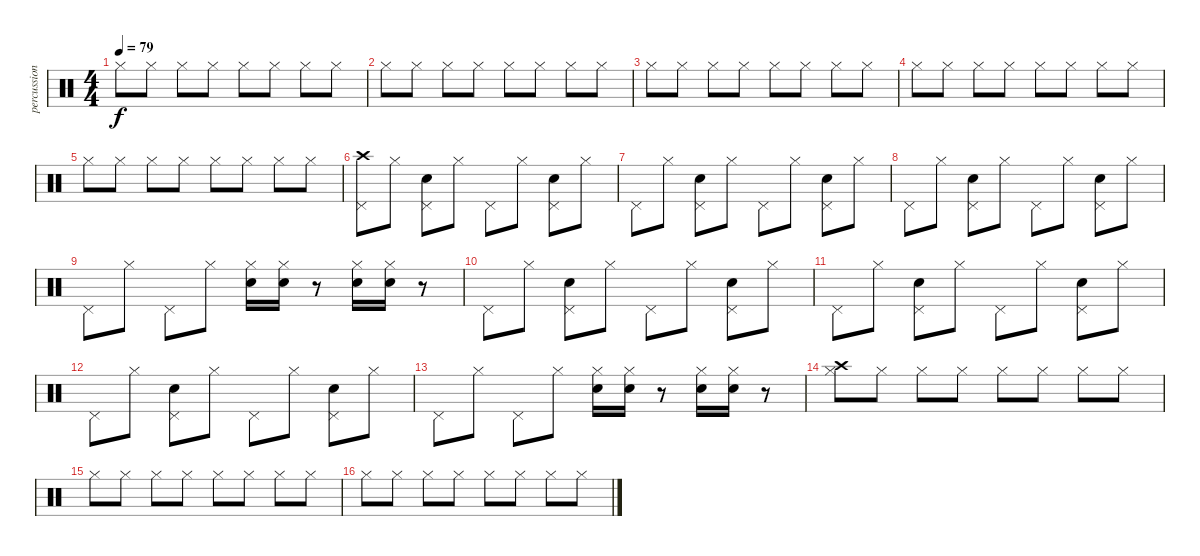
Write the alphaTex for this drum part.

\track ("percussion" "percussion") {instrument percussion}
\staff {score}
\articulation defaults
\ts (4 4)
\tempo 79
\clef neutral
\ks c "Hi-Hat (closed)".8{dy f} "Hi-Hat (closed)".8 "Hi-Hat (closed)".8 "Hi-Hat (closed)".8 "Hi-Hat (closed)".8 "Hi-Hat (closed)".8 "Hi-Hat (closed)".8 "Hi-Hat (closed)".8
|
"Hi-Hat (closed)".8 "Hi-Hat (closed)".8 "Hi-Hat (closed)".8 "Hi-Hat (closed)".8 "Hi-Hat (closed)".8 "Hi-Hat (closed)".8 "Hi-Hat (closed)".8 "Hi-Hat (closed)".8 |
"Hi-Hat (closed)".8 "Hi-Hat (closed)".8 "Hi-Hat (closed)".8 "Hi-Hat (closed)".8 "Hi-Hat (closed)".8 "Hi-Hat (closed)".8 "Hi-Hat (closed)".8 "Hi-Hat (closed)".8 |
"Hi-Hat (closed)".8 "Hi-Hat (closed)".8 "Hi-Hat (closed)".8 "Hi-Hat (closed)".8 "Hi-Hat (closed)".8 "Hi-Hat (closed)".8 "Hi-Hat (closed)".8 "Hi-Hat (closed)".8 |
"Hi-Hat (closed)".8 "Hi-Hat (closed)".8 "Hi-Hat (closed)".8 "Hi-Hat (closed)".8 "Hi-Hat (closed)".8 "Hi-Hat (closed)".8 "Hi-Hat (closed)".8 "Hi-Hat (closed)".8 |
("Crash high (hit)" "Pedal Hi-Hat (hit)").8 "Hi-Hat (closed)".8 ("Pedal Hi-Hat (hit)" "Snare (hit) 2").8 "Hi-Hat (closed)".8 "Pedal Hi-Hat (hit)".8 "Hi-Hat (closed)".8 ("Pedal Hi-Hat (hit)" "Snare (hit) 2").8 "Hi-Hat (closed)".8 |
"Pedal Hi-Hat (hit)".8 "Hi-Hat (closed)".8 ("Pedal Hi-Hat (hit)" "Snare (hit) 2").8 "Hi-Hat (closed)".8 "Pedal Hi-Hat (hit)".8 "Hi-Hat (closed)".8 ("Pedal Hi-Hat (hit)" "Snare (hit) 2").8 "Hi-Hat (closed)".8 |
"Pedal Hi-Hat (hit)".8 "Hi-Hat (closed)".8 ("Pedal Hi-Hat (hit)" "Snare (hit) 2").8 "Hi-Hat (closed)".8 "Pedal Hi-Hat (hit)".8 "Hi-Hat (closed)".8 ("Pedal Hi-Hat (hit)" "Snare (hit) 2").8 "Hi-Hat (closed)".8 |
"Pedal Hi-Hat (hit)".8 "Hi-Hat (closed)".8 "Pedal Hi-Hat (hit)".8 "Hi-Hat (closed)".8 ("Hi-Hat (closed)" "Snare (hit) 2").16 ("Hi-Hat (closed)" "Snare (hit) 2").16 r.8 ("Hi-Hat (closed)" "Snare (hit) 2").16 ("Hi-Hat (closed)" "Snare (hit) 2").16 r.8 |
"Pedal Hi-Hat (hit)".8 "Hi-Hat (closed)".8 ("Pedal Hi-Hat (hit)" "Snare (hit) 2").8 "Hi-Hat (closed)".8 "Pedal Hi-Hat (hit)".8 "Hi-Hat (closed)".8 ("Pedal Hi-Hat (hit)" "Snare (hit) 2").8 "Hi-Hat (closed)".8 |
"Pedal Hi-Hat (hit)".8 "Hi-Hat (closed)".8 ("Pedal Hi-Hat (hit)" "Snare (hit) 2").8 "Hi-Hat (closed)".8 "Pedal Hi-Hat (hit)".8 "Hi-Hat (closed)".8 ("Pedal Hi-Hat (hit)" "Snare (hit) 2").8 "Hi-Hat (closed)".8 |
"Pedal Hi-Hat (hit)".8 "Hi-Hat (closed)".8 ("Pedal Hi-Hat (hit)" "Snare (hit) 2").8 "Hi-Hat (closed)".8 "Pedal Hi-Hat (hit)".8 "Hi-Hat (closed)".8 ("Pedal Hi-Hat (hit)" "Snare (hit) 2").8 "Hi-Hat (closed)".8 |
"Pedal Hi-Hat (hit)".8 "Hi-Hat (closed)".8 "Pedal Hi-Hat (hit)".8 "Hi-Hat (closed)".8 ("Hi-Hat (closed)" "Snare (hit) 2").16 ("Hi-Hat (closed)" "Snare (hit) 2").16 r.8 ("Hi-Hat (closed)" "Snare (hit) 2").16 ("Hi-Hat (closed)" "Snare (hit) 2").16 r.8 |
("Crash high (hit)" "Hi-Hat (closed)").8 "Hi-Hat (closed)".8 "Hi-Hat (closed)".8 "Hi-Hat (closed)".8 "Hi-Hat (closed)".8 "Hi-Hat (closed)".8 "Hi-Hat (closed)".8 "Hi-Hat (closed)".8 |
"Hi-Hat (closed)".8 "Hi-Hat (closed)".8 "Hi-Hat (closed)".8 "Hi-Hat (closed)".8 "Hi-Hat (closed)".8 "Hi-Hat (closed)".8 "Hi-Hat (closed)".8 "Hi-Hat (closed)".8 |
"Hi-Hat (closed)".8 "Hi-Hat (closed)".8 "Hi-Hat (closed)".8 "Hi-Hat (closed)".8 "Hi-Hat (closed)".8 "Hi-Hat (closed)".8 "Hi-Hat (closed)".8 "Hi-Hat (closed)".8
